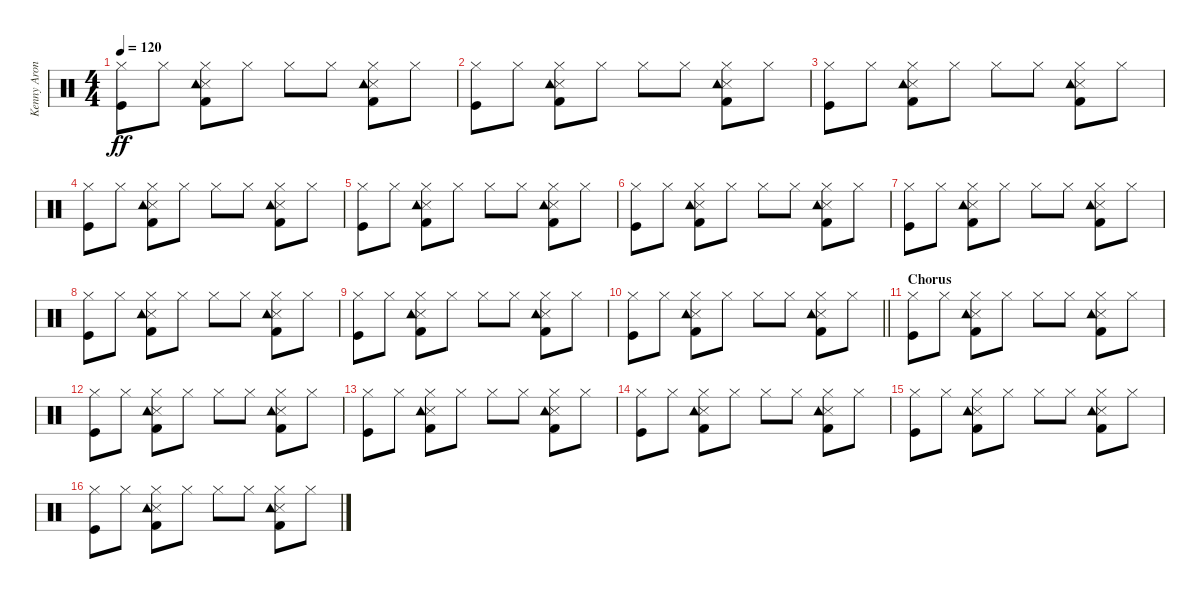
\track ("Kenny Aronoff" "Kenny Aron") {instrument percussion}
\staff {score}
\articulation defaults
\ts (4 4)
\tempo 120
\clef neutral
\ks c
("Kick (hit)" "Hi-Hat (closed)").8{dy ff} "Hi-Hat (closed)".8 ("Kick (hit) 2" "Snare (side stick) 3" "Hi-Hat (closed)" "Tambourine (hit)").8 "Hi-Hat (closed)".8 "Hi-Hat (closed)".8 "Hi-Hat (closed)".8 ("Kick (hit) 2" "Snare (side stick) 3" "Hi-Hat (closed)" "Tambourine (hit)").8 "Hi-Hat (closed)".8 |
("Kick (hit)" "Hi-Hat (closed)").8 "Hi-Hat (closed)".8 ("Kick (hit) 2" "Snare (side stick) 3" "Hi-Hat (closed)" "Tambourine (hit)").8 "Hi-Hat (closed)".8 "Hi-Hat (closed)".8 "Hi-Hat (closed)".8 ("Kick (hit) 2" "Snare (side stick) 3" "Hi-Hat (closed)" "Tambourine (hit)").8 "Hi-Hat (closed)".8 |
("Kick (hit)" "Hi-Hat (closed)").8 "Hi-Hat (closed)".8 ("Kick (hit) 2" "Snare (side stick) 3" "Hi-Hat (closed)" "Tambourine (hit)").8 "Hi-Hat (closed)".8 "Hi-Hat (closed)".8 "Hi-Hat (closed)".8 ("Kick (hit) 2" "Snare (side stick) 3" "Hi-Hat (closed)" "Tambourine (hit)").8 "Hi-Hat (closed)".8 |
("Kick (hit)" "Hi-Hat (closed)").8 "Hi-Hat (closed)".8 ("Kick (hit) 2" "Snare (side stick) 3" "Hi-Hat (closed)" "Tambourine (hit)").8 "Hi-Hat (closed)".8 "Hi-Hat (closed)".8 "Hi-Hat (closed)".8 ("Kick (hit) 2" "Snare (side stick) 3" "Hi-Hat (closed)" "Tambourine (hit)").8 "Hi-Hat (closed)".8 |
("Kick (hit)" "Hi-Hat (closed)").8 "Hi-Hat (closed)".8 ("Kick (hit) 2" "Snare (side stick) 3" "Hi-Hat (closed)" "Tambourine (hit)").8 "Hi-Hat (closed)".8 "Hi-Hat (closed)".8 "Hi-Hat (closed)".8 ("Kick (hit) 2" "Snare (side stick) 3" "Hi-Hat (closed)" "Tambourine (hit)").8 "Hi-Hat (closed)".8 |
("Kick (hit)" "Hi-Hat (closed)").8 "Hi-Hat (closed)".8 ("Kick (hit) 2" "Snare (side stick) 3" "Hi-Hat (closed)" "Tambourine (hit)").8 "Hi-Hat (closed)".8 "Hi-Hat (closed)".8 "Hi-Hat (closed)".8 ("Kick (hit) 2" "Snare (side stick) 3" "Hi-Hat (closed)" "Tambourine (hit)").8 "Hi-Hat (closed)".8 |
("Kick (hit)" "Hi-Hat (closed)").8 "Hi-Hat (closed)".8 ("Kick (hit) 2" "Snare (side stick) 3" "Hi-Hat (closed)" "Tambourine (hit)").8 "Hi-Hat (closed)".8 "Hi-Hat (closed)".8 "Hi-Hat (closed)".8 ("Kick (hit) 2" "Snare (side stick) 3" "Hi-Hat (closed)" "Tambourine (hit)").8 "Hi-Hat (closed)".8 |
("Kick (hit)" "Hi-Hat (closed)").8 "Hi-Hat (closed)".8 ("Kick (hit) 2" "Snare (side stick) 3" "Hi-Hat (closed)" "Tambourine (hit)").8 "Hi-Hat (closed)".8 "Hi-Hat (closed)".8 "Hi-Hat (closed)".8 ("Kick (hit) 2" "Snare (side stick) 3" "Hi-Hat (closed)" "Tambourine (hit)").8 "Hi-Hat (closed)".8 |
("Kick (hit)" "Hi-Hat (closed)").8 "Hi-Hat (closed)".8 ("Kick (hit) 2" "Snare (side stick) 3" "Hi-Hat (closed)" "Tambourine (hit)").8 "Hi-Hat (closed)".8 "Hi-Hat (closed)".8 "Hi-Hat (closed)".8 ("Kick (hit) 2" "Snare (side stick) 3" "Hi-Hat (closed)" "Tambourine (hit)").8 "Hi-Hat (closed)".8 |
\barLineRight lightlight
("Kick (hit)" "Hi-Hat (closed)").8 "Hi-Hat (closed)".8 ("Kick (hit) 2" "Snare (side stick) 3" "Hi-Hat (closed)" "Tambourine (hit)").8 "Hi-Hat (closed)".8 "Hi-Hat (closed)".8 "Hi-Hat (closed)".8 ("Kick (hit) 2" "Snare (side stick) 3" "Hi-Hat (closed)" "Tambourine (hit)").8 "Hi-Hat (closed)".8 |
\section ("" "Chorus")
("Kick (hit)" "Hi-Hat (closed)").8 "Hi-Hat (closed)".8 ("Kick (hit) 2" "Snare (side stick) 3" "Hi-Hat (closed)" "Tambourine (hit)").8 "Hi-Hat (closed)".8 "Hi-Hat (closed)".8 "Hi-Hat (closed)".8 ("Kick (hit) 2" "Snare (side stick) 3" "Hi-Hat (closed)" "Tambourine (hit)").8 "Hi-Hat (closed)".8 |
("Kick (hit)" "Hi-Hat (closed)").8 "Hi-Hat (closed)".8 ("Kick (hit) 2" "Snare (side stick) 3" "Hi-Hat (closed)" "Tambourine (hit)").8 "Hi-Hat (closed)".8 "Hi-Hat (closed)".8 "Hi-Hat (closed)".8 ("Kick (hit) 2" "Snare (side stick) 3" "Hi-Hat (closed)" "Tambourine (hit)").8 "Hi-Hat (closed)".8 |
("Kick (hit)" "Hi-Hat (closed)").8 "Hi-Hat (closed)".8 ("Kick (hit) 2" "Snare (side stick) 3" "Hi-Hat (closed)" "Tambourine (hit)").8 "Hi-Hat (closed)".8 "Hi-Hat (closed)".8 "Hi-Hat (closed)".8 ("Kick (hit) 2" "Snare (side stick) 3" "Hi-Hat (closed)" "Tambourine (hit)").8 "Hi-Hat (closed)".8 |
("Kick (hit)" "Hi-Hat (closed)").8 "Hi-Hat (closed)".8 ("Kick (hit) 2" "Snare (side stick) 3" "Hi-Hat (closed)" "Tambourine (hit)").8 "Hi-Hat (closed)".8 "Hi-Hat (closed)".8 "Hi-Hat (closed)".8 ("Kick (hit) 2" "Snare (side stick) 3" "Hi-Hat (closed)" "Tambourine (hit)").8 "Hi-Hat (closed)".8 |
("Kick (hit)" "Hi-Hat (closed)").8 "Hi-Hat (closed)".8 ("Kick (hit) 2" "Snare (side stick) 3" "Hi-Hat (closed)" "Tambourine (hit)").8 "Hi-Hat (closed)".8 "Hi-Hat (closed)".8 "Hi-Hat (closed)".8 ("Kick (hit) 2" "Snare (side stick) 3" "Hi-Hat (closed)" "Tambourine (hit)").8 "Hi-Hat (closed)".8 |
("Kick (hit)" "Hi-Hat (closed)").8 "Hi-Hat (closed)".8 ("Kick (hit) 2" "Snare (side stick) 3" "Hi-Hat (closed)" "Tambourine (hit)").8 "Hi-Hat (closed)".8 "Hi-Hat (closed)".8 "Hi-Hat (closed)".8 ("Kick (hit) 2" "Snare (side stick) 3" "Hi-Hat (closed)" "Tambourine (hit)").8 "Hi-Hat (closed)".8
